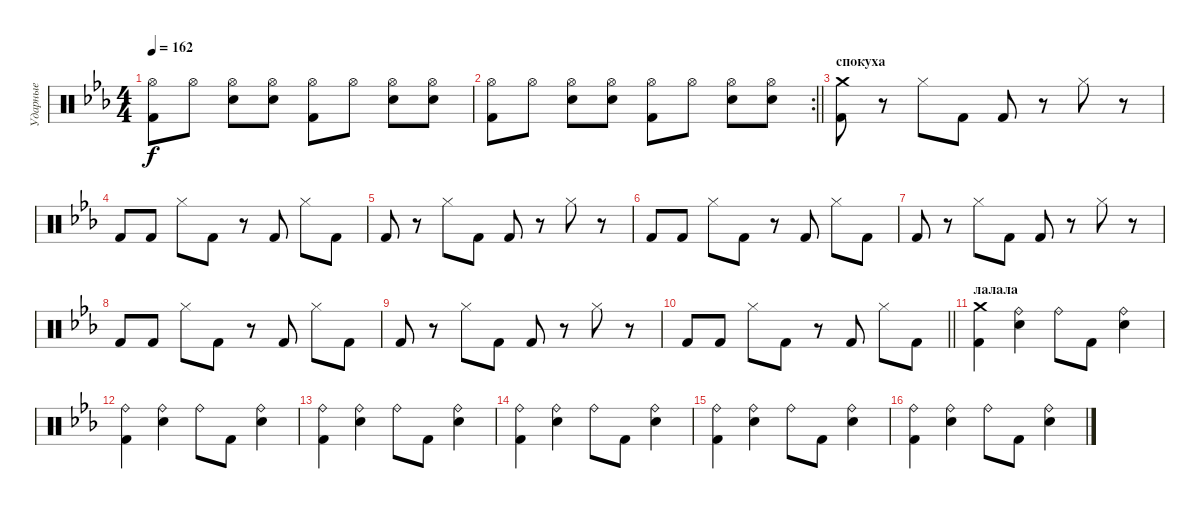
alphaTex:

\track ("Ударные" "Ударные") {instrument percussion}
\staff {score}
\articulation defaults
\ts (4 4)
\tempo 162
\clef neutral
\ks cminor
("Hi-Hat (open)" "Kick (hit) 2").8{dy f} "Hi-Hat (open)".8 ("Hi-Hat (open)" "Snare (hit) 2").8 ("Hi-Hat (open)" "Snare (hit) 2").8 ("Hi-Hat (open)" "Kick (hit) 2").8 "Hi-Hat (open)".8 ("Hi-Hat (open)" "Snare (hit) 2").8 ("Hi-Hat (open)" "Snare (hit) 2").8 |
\rc 2
\barLineRight lightlight
("Hi-Hat (open)" "Kick (hit) 2").8 "Hi-Hat (open)".8 ("Hi-Hat (open)" "Snare (hit) 2").8 ("Hi-Hat (open)" "Snare (hit) 2").8 ("Hi-Hat (open)" "Kick (hit) 2").8 "Hi-Hat (open)".8 ("Hi-Hat (open)" "Snare (hit) 2").8 ("Hi-Hat (open)" "Snare (hit) 2").8 |
\section ("" "спокуха")
("Crash medium (hit)" "Kick (hit) 2").8 r.8 "Hi-Hat (closed)".8 "Kick (hit) 2".8 "Kick (hit) 2".8 r.8 "Hi-Hat (closed)".8 r.8 |
"Kick (hit) 2".8 "Kick (hit) 2".8 "Hi-Hat (closed)".8 "Kick (hit) 2".8 r.8 "Kick (hit) 2".8 "Hi-Hat (closed)".8 "Kick (hit) 2".8 |
"Kick (hit) 2".8 r.8 "Hi-Hat (closed)".8 "Kick (hit) 2".8 "Kick (hit) 2".8 r.8 "Hi-Hat (closed)".8 r.8 |
"Kick (hit) 2".8 "Kick (hit) 2".8 "Hi-Hat (closed)".8 "Kick (hit) 2".8 r.8 "Kick (hit) 2".8 "Hi-Hat (closed)".8 "Kick (hit) 2".8 |
"Kick (hit) 2".8 r.8 "Hi-Hat (closed)".8 "Kick (hit) 2".8 "Kick (hit) 2".8 r.8 "Hi-Hat (closed)".8 r.8 |
"Kick (hit) 2".8 "Kick (hit) 2".8 "Hi-Hat (closed)".8 "Kick (hit) 2".8 r.8 "Kick (hit) 2".8 "Hi-Hat (closed)".8 "Kick (hit) 2".8 |
"Kick (hit) 2".8 r.8 "Hi-Hat (closed)".8 "Kick (hit) 2".8 "Kick (hit) 2".8 r.8 "Hi-Hat (closed)".8 r.8 |
\barLineRight lightlight "Kick (hit) 2".8 "Kick (hit) 2".8 "Hi-Hat (closed)".8 "Kick (hit) 2".8
r.8 "Kick (hit) 2".8 "Hi-Hat (closed)".8 "Kick (hit) 2".8 |
\section ("" "лалала")
("Crash medium (hit)" "Kick (hit) 2").4 ("Ride (bell)" "Snare (hit) 2").4 "Ride (bell)".8 "Kick (hit) 2".8 ("Ride (bell)" "Snare (hit) 2").4 |
("Ride (bell)" "Kick (hit) 2").4 ("Ride (bell)" "Snare (hit) 2").4 "Ride (bell)".8 "Kick (hit) 2".8 ("Ride (bell)" "Snare (hit) 2").4 |
("Ride (bell)" "Kick (hit) 2").4 ("Ride (bell)" "Snare (hit) 2").4 "Ride (bell)".8 "Kick (hit) 2".8 ("Ride (bell)" "Snare (hit) 2").4 |
("Ride (bell)" "Kick (hit) 2").4 ("Ride (bell)" "Snare (hit) 2").4 "Ride (bell)".8 "Kick (hit) 2".8 ("Ride (bell)" "Snare (hit) 2").4 |
("Ride (bell)" "Kick (hit) 2").4 ("Ride (bell)" "Snare (hit) 2").4 "Ride (bell)".8 "Kick (hit) 2".8 ("Ride (bell)" "Snare (hit) 2").4 |
("Ride (bell)" "Kick (hit) 2").4 ("Ride (bell)" "Snare (hit) 2").4 "Ride (bell)".8 "Kick (hit) 2".8 ("Ride (bell)" "Snare (hit) 2").4
